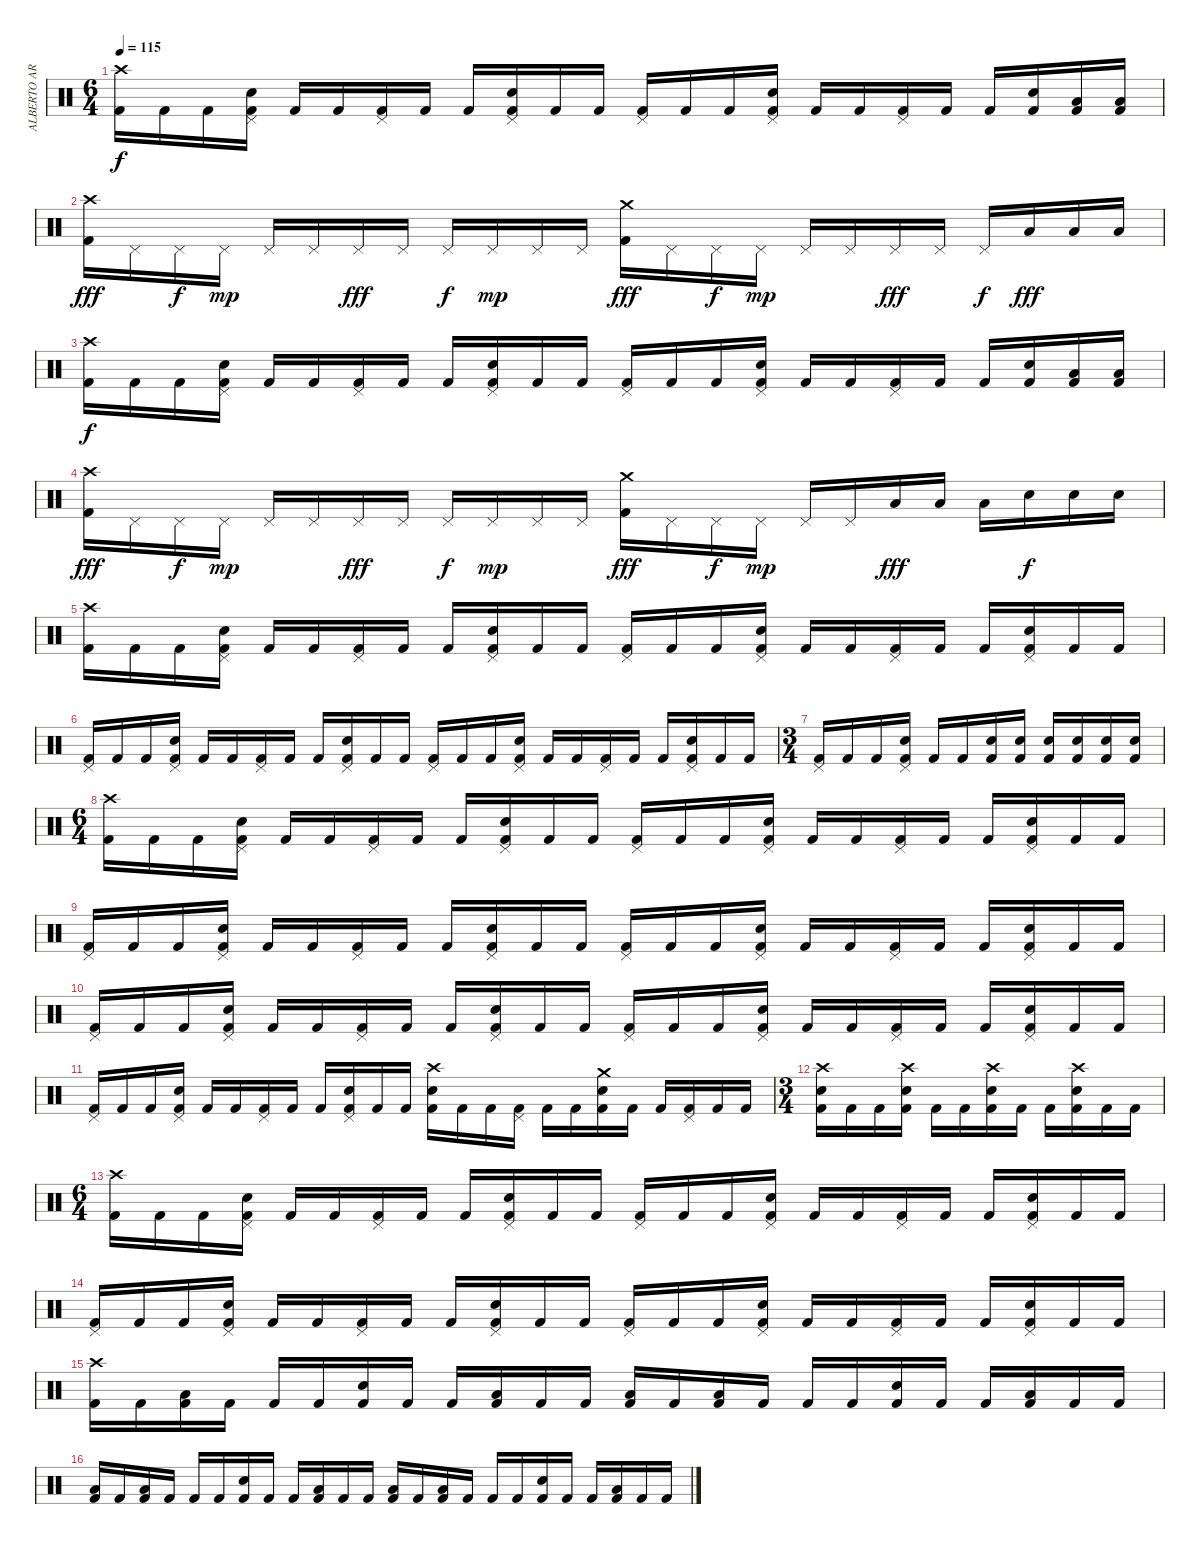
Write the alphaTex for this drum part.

\track ("ALBERTO ARDINES" "ALBERTO AR") {instrument percussion}
\staff {score}
\articulation defaults
\ts (6 4)
\tempo 115
\clef neutral
\ks c
("Crash high (hit)" "Kick (hit) 2").16{dy f} "Kick (hit) 2".16 "Kick (hit) 2".16 ("Pedal Hi-Hat (hit)" "Electric Snare (hit)" "Kick (hit) 2").16 "Kick (hit) 2".16 "Kick (hit) 2".16 ("Pedal Hi-Hat (hit)" "Kick (hit) 2").16 "Kick (hit) 2".16 "Kick (hit) 2".16 ("Pedal Hi-Hat (hit)" "Electric Snare (hit)" "Kick (hit) 2").16 "Kick (hit) 2".16 "Kick (hit) 2".16 ("Pedal Hi-Hat (hit)" "Kick (hit) 2").16 "Kick (hit) 2".16 "Kick (hit) 2".16 ("Pedal Hi-Hat (hit)" "Electric Snare (hit)" "Kick (hit) 2").16 "Kick (hit) 2".16 "Kick (hit) 2".16 ("Pedal Hi-Hat (hit)" "Kick (hit) 2").16 "Kick (hit) 2".16 "Kick (hit) 2".16 ("Electric Snare (hit)" "Kick (hit) 2").16 ("Low Tom (hit)" "Kick (hit) 2").16 ("Low Tom (hit)" "Kick (hit) 2").16 |
("Crash high (hit)" "Kick (hit) 2").16{dy fff} "Pedal Hi-Hat (hit)".16 "Pedal Hi-Hat (hit)".16{dy f} "Pedal Hi-Hat (hit)".16{dy mp} "Pedal Hi-Hat (hit)".16 "Pedal Hi-Hat (hit)".16 "Pedal Hi-Hat (hit)".16{dy fff} "Pedal Hi-Hat (hit)".16 "Pedal Hi-Hat (hit)".16{dy f} "Pedal Hi-Hat (hit)".16{dy mp} "Pedal Hi-Hat (hit)".16 "Pedal Hi-Hat (hit)".16 ("Crash medium (hit)" "Kick (hit) 2").16{dy fff} "Pedal Hi-Hat (hit)".16 "Pedal Hi-Hat (hit)".16{dy f} "Pedal Hi-Hat (hit)".16{dy mp} "Pedal Hi-Hat (hit)".16 "Pedal Hi-Hat (hit)".16 "Pedal Hi-Hat (hit)".16{dy fff} "Pedal Hi-Hat (hit)".16 "Pedal Hi-Hat (hit)".16{dy f} "Low Tom (hit)".16{dy fff} "Low Tom (hit)".16 "Low Tom (hit)".16 |
("Crash high (hit)" "Kick (hit) 2").16{dy f} "Kick (hit) 2".16 "Kick (hit) 2".16 ("Pedal Hi-Hat (hit)" "Electric Snare (hit)" "Kick (hit) 2").16 "Kick (hit) 2".16 "Kick (hit) 2".16 ("Pedal Hi-Hat (hit)" "Kick (hit) 2").16 "Kick (hit) 2".16 "Kick (hit) 2".16 ("Pedal Hi-Hat (hit)" "Electric Snare (hit)" "Kick (hit) 2").16 "Kick (hit) 2".16 "Kick (hit) 2".16 ("Pedal Hi-Hat (hit)" "Kick (hit) 2").16 "Kick (hit) 2".16 "Kick (hit) 2".16 ("Pedal Hi-Hat (hit)" "Electric Snare (hit)" "Kick (hit) 2").16 "Kick (hit) 2".16 "Kick (hit) 2".16 ("Pedal Hi-Hat (hit)" "Kick (hit) 2").16 "Kick (hit) 2".16 "Kick (hit) 2".16 ("Electric Snare (hit)" "Kick (hit) 2").16 ("Low Tom (hit)" "Kick (hit) 2").16 ("Low Tom (hit)" "Kick (hit) 2").16 |
("Crash high (hit)" "Kick (hit) 2").16{dy fff} "Pedal Hi-Hat (hit)".16 "Pedal Hi-Hat (hit)".16{dy f} "Pedal Hi-Hat (hit)".16{dy mp} "Pedal Hi-Hat (hit)".16 "Pedal Hi-Hat (hit)".16 "Pedal Hi-Hat (hit)".16{dy fff} "Pedal Hi-Hat (hit)".16 "Pedal Hi-Hat (hit)".16{dy f} "Pedal Hi-Hat (hit)".16{dy mp} "Pedal Hi-Hat (hit)".16 "Pedal Hi-Hat (hit)".16 ("Crash medium (hit)" "Kick (hit) 2").16{dy fff} "Pedal Hi-Hat (hit)".16 "Pedal Hi-Hat (hit)".16{dy f} "Pedal Hi-Hat (hit)".16{dy mp} "Pedal Hi-Hat (hit)".16 "Pedal Hi-Hat (hit)".16 "Low Tom (hit)".16{dy fff} "Low Tom (hit)".16 "Low Tom (hit)".16 "Electric Snare (hit)".16{dy f} "Electric Snare (hit)".16 "Electric Snare (hit)".16 |
("Crash high (hit)" "Kick (hit) 2").16 "Kick (hit) 2".16 "Kick (hit) 2".16 ("Pedal Hi-Hat (hit)" "Electric Snare (hit)" "Kick (hit) 2").16 "Kick (hit) 2".16 "Kick (hit) 2".16 ("Pedal Hi-Hat (hit)" "Kick (hit) 2").16 "Kick (hit) 2".16 "Kick (hit) 2".16 ("Pedal Hi-Hat (hit)" "Electric Snare (hit)" "Kick (hit) 2").16 "Kick (hit) 2".16 "Kick (hit) 2".16 ("Pedal Hi-Hat (hit)" "Kick (hit) 2").16 "Kick (hit) 2".16 "Kick (hit) 2".16 ("Pedal Hi-Hat (hit)" "Electric Snare (hit)" "Kick (hit) 2").16 "Kick (hit) 2".16 "Kick (hit) 2".16 ("Pedal Hi-Hat (hit)" "Kick (hit) 2").16 "Kick (hit) 2".16 "Kick (hit) 2".16 ("Pedal Hi-Hat (hit)" "Electric Snare (hit)" "Kick (hit) 2").16 "Kick (hit) 2".16 "Kick (hit) 2".16 |
("Pedal Hi-Hat (hit)" "Kick (hit) 2").16 "Kick (hit) 2".16 "Kick (hit) 2".16 ("Pedal Hi-Hat (hit)" "Electric Snare (hit)" "Kick (hit) 2").16 "Kick (hit) 2".16 "Kick (hit) 2".16 ("Pedal Hi-Hat (hit)" "Kick (hit) 2").16 "Kick (hit) 2".16 "Kick (hit) 2".16 ("Pedal Hi-Hat (hit)" "Electric Snare (hit)" "Kick (hit) 2").16 "Kick (hit) 2".16 "Kick (hit) 2".16 ("Pedal Hi-Hat (hit)" "Kick (hit) 2").16 "Kick (hit) 2".16 "Kick (hit) 2".16 ("Pedal Hi-Hat (hit)" "Electric Snare (hit)" "Kick (hit) 2").16 "Kick (hit) 2".16 "Kick (hit) 2".16 ("Pedal Hi-Hat (hit)" "Kick (hit) 2").16 "Kick (hit) 2".16 "Kick (hit) 2".16 ("Pedal Hi-Hat (hit)" "Electric Snare (hit)" "Kick (hit) 2").16 "Kick (hit) 2".16 "Kick (hit) 2".16 |
\ts (3 4)
("Pedal Hi-Hat (hit)" "Kick (hit) 2").16 "Kick (hit) 2".16 "Kick (hit) 2".16 ("Pedal Hi-Hat (hit)" "Electric Snare (hit)" "Kick (hit) 2").16 "Kick (hit) 2".16 "Kick (hit) 2".16 ("Electric Snare (hit)" "Kick (hit) 2").16 ("Electric Snare (hit)" "Kick (hit) 2").16 ("Electric Snare (hit)" "Kick (hit) 2").16 ("Electric Snare (hit)" "Kick (hit) 2").16 ("Electric Snare (hit)" "Kick (hit) 2").16 ("Electric Snare (hit)" "Kick (hit) 2").16 |
\ts (6 4)
("Crash high (hit)" "Kick (hit) 2").16 "Kick (hit) 2".16 "Kick (hit) 2".16 ("Pedal Hi-Hat (hit)" "Electric Snare (hit)" "Kick (hit) 2").16 "Kick (hit) 2".16 "Kick (hit) 2".16 ("Pedal Hi-Hat (hit)" "Kick (hit) 2").16 "Kick (hit) 2".16 "Kick (hit) 2".16 ("Pedal Hi-Hat (hit)" "Electric Snare (hit)" "Kick (hit) 2").16 "Kick (hit) 2".16 "Kick (hit) 2".16 ("Pedal Hi-Hat (hit)" "Kick (hit) 2").16 "Kick (hit) 2".16 "Kick (hit) 2".16 ("Pedal Hi-Hat (hit)" "Electric Snare (hit)" "Kick (hit) 2").16 "Kick (hit) 2".16 "Kick (hit) 2".16 ("Pedal Hi-Hat (hit)" "Kick (hit) 2").16 "Kick (hit) 2".16 "Kick (hit) 2".16 ("Pedal Hi-Hat (hit)" "Electric Snare (hit)" "Kick (hit) 2").16 "Kick (hit) 2".16 "Kick (hit) 2".16 |
("Pedal Hi-Hat (hit)" "Kick (hit) 2").16 "Kick (hit) 2".16 "Kick (hit) 2".16 ("Pedal Hi-Hat (hit)" "Electric Snare (hit)" "Kick (hit) 2").16 "Kick (hit) 2".16 "Kick (hit) 2".16 ("Pedal Hi-Hat (hit)" "Kick (hit) 2").16 "Kick (hit) 2".16 "Kick (hit) 2".16 ("Pedal Hi-Hat (hit)" "Electric Snare (hit)" "Kick (hit) 2").16 "Kick (hit) 2".16 "Kick (hit) 2".16 ("Pedal Hi-Hat (hit)" "Kick (hit) 2").16 "Kick (hit) 2".16 "Kick (hit) 2".16 ("Pedal Hi-Hat (hit)" "Electric Snare (hit)" "Kick (hit) 2").16 "Kick (hit) 2".16 "Kick (hit) 2".16 ("Pedal Hi-Hat (hit)" "Kick (hit) 2").16 "Kick (hit) 2".16 "Kick (hit) 2".16 ("Pedal Hi-Hat (hit)" "Electric Snare (hit)" "Kick (hit) 2").16 "Kick (hit) 2".16 "Kick (hit) 2".16 |
("Pedal Hi-Hat (hit)" "Kick (hit) 2").16 "Kick (hit) 2".16 "Kick (hit) 2".16 ("Pedal Hi-Hat (hit)" "Electric Snare (hit)" "Kick (hit) 2").16 "Kick (hit) 2".16 "Kick (hit) 2".16 ("Pedal Hi-Hat (hit)" "Kick (hit) 2").16 "Kick (hit) 2".16 "Kick (hit) 2".16 ("Pedal Hi-Hat (hit)" "Electric Snare (hit)" "Kick (hit) 2").16 "Kick (hit) 2".16 "Kick (hit) 2".16 ("Pedal Hi-Hat (hit)" "Kick (hit) 2").16 "Kick (hit) 2".16 "Kick (hit) 2".16 ("Pedal Hi-Hat (hit)" "Electric Snare (hit)" "Kick (hit) 2").16 "Kick (hit) 2".16 "Kick (hit) 2".16 ("Pedal Hi-Hat (hit)" "Kick (hit) 2").16 "Kick (hit) 2".16 "Kick (hit) 2".16 ("Pedal Hi-Hat (hit)" "Electric Snare (hit)" "Kick (hit) 2").16 "Kick (hit) 2".16 "Kick (hit) 2".16 |
("Pedal Hi-Hat (hit)" "Kick (hit) 2").16 "Kick (hit) 2".16 "Kick (hit) 2".16 ("Pedal Hi-Hat (hit)" "Electric Snare (hit)" "Kick (hit) 2").16 "Kick (hit) 2".16 "Kick (hit) 2".16 ("Pedal Hi-Hat (hit)" "Kick (hit) 2").16 "Kick (hit) 2".16 "Kick (hit) 2".16 ("Pedal Hi-Hat (hit)" "Electric Snare (hit)" "Kick (hit) 2").16 "Kick (hit) 2".16 "Kick (hit) 2".16 ("Crash high (hit)" "Electric Snare (hit)" "Kick (hit) 2").16 "Kick (hit) 2".16 "Kick (hit) 2".16 ("Pedal Hi-Hat (hit)" "Kick (hit) 2").16 "Kick (hit) 2".16 "Kick (hit) 2".16 ("Crash medium (hit)" "Electric Snare (hit)" "Kick (hit) 2").16 "Kick (hit) 2".16 "Kick (hit) 2".16 ("Pedal Hi-Hat (hit)" "Kick (hit) 2").16 "Kick (hit) 2".16 "Kick (hit) 2".16 |
\ts (3 4)
("Crash high (hit)" "Electric Snare (hit)" "Kick (hit) 2").16 "Kick (hit) 2".16 "Kick (hit) 2".16 ("Crash high (hit)" "Electric Snare (hit)" "Kick (hit) 2").16 "Kick (hit) 2".16 "Kick (hit) 2".16 ("Crash high (hit)" "Electric Snare (hit)" "Kick (hit) 2").16 "Kick (hit) 2".16 "Kick (hit) 2".16 ("Crash high (hit)" "Electric Snare (hit)" "Kick (hit) 2").16 "Kick (hit) 2".16 "Kick (hit) 2".16 |
\ts (6 4)
("Crash high (hit)" "Kick (hit) 2").16 "Kick (hit) 2".16 "Kick (hit) 2".16 ("Pedal Hi-Hat (hit)" "Electric Snare (hit)" "Kick (hit) 2").16 "Kick (hit) 2".16 "Kick (hit) 2".16 ("Pedal Hi-Hat (hit)" "Kick (hit) 2").16 "Kick (hit) 2".16 "Kick (hit) 2".16 ("Pedal Hi-Hat (hit)" "Electric Snare (hit)" "Kick (hit) 2").16 "Kick (hit) 2".16 "Kick (hit) 2".16 ("Pedal Hi-Hat (hit)" "Kick (hit) 2").16 "Kick (hit) 2".16 "Kick (hit) 2".16 ("Pedal Hi-Hat (hit)" "Electric Snare (hit)" "Kick (hit) 2").16 "Kick (hit) 2".16 "Kick (hit) 2".16 ("Pedal Hi-Hat (hit)" "Kick (hit) 2").16 "Kick (hit) 2".16 "Kick (hit) 2".16 ("Pedal Hi-Hat (hit)" "Electric Snare (hit)" "Kick (hit) 2").16 "Kick (hit) 2".16 "Kick (hit) 2".16 |
("Pedal Hi-Hat (hit)" "Kick (hit) 2").16 "Kick (hit) 2".16 "Kick (hit) 2".16 ("Pedal Hi-Hat (hit)" "Electric Snare (hit)" "Kick (hit) 2").16 "Kick (hit) 2".16 "Kick (hit) 2".16 ("Pedal Hi-Hat (hit)" "Kick (hit) 2").16 "Kick (hit) 2".16 "Kick (hit) 2".16 ("Pedal Hi-Hat (hit)" "Electric Snare (hit)" "Kick (hit) 2").16 "Kick (hit) 2".16 "Kick (hit) 2".16 ("Pedal Hi-Hat (hit)" "Kick (hit) 2").16 "Kick (hit) 2".16 "Kick (hit) 2".16 ("Pedal Hi-Hat (hit)" "Electric Snare (hit)" "Kick (hit) 2").16 "Kick (hit) 2".16 "Kick (hit) 2".16 ("Pedal Hi-Hat (hit)" "Kick (hit) 2").16 "Kick (hit) 2".16 "Kick (hit) 2".16 ("Pedal Hi-Hat (hit)" "Electric Snare (hit)" "Kick (hit) 2").16 "Kick (hit) 2".16 "Kick (hit) 2".16 |
("Crash high (hit)" "Kick (hit) 2").16 "Kick (hit) 2".16 ("Low Tom (hit)" "Kick (hit) 2").16 "Kick (hit) 2".16 "Kick (hit) 2".16 "Kick (hit) 2".16 ("Electric Snare (hit)" "Kick (hit) 2").16 "Kick (hit) 2".16 "Kick (hit) 2".16 ("Low Tom (hit)" "Kick (hit) 2").16 "Kick (hit) 2".16 "Kick (hit) 2".16 ("Low Floor Tom (hit)" "Kick (hit) 2").16 "Kick (hit) 2".16 ("Low Tom (hit)" "Kick (hit) 2").16 "Kick (hit) 2".16 "Kick (hit) 2".16 "Kick (hit) 2".16 ("Electric Snare (hit)" "Kick (hit) 2").16 "Kick (hit) 2".16 "Kick (hit) 2".16 ("Low Tom (hit)" "Kick (hit) 2").16 "Kick (hit) 2".16 "Kick (hit) 2".16 |
("Low Floor Tom (hit)" "Kick (hit) 2").16 "Kick (hit) 2".16 ("Low Tom (hit)" "Kick (hit) 2").16 "Kick (hit) 2".16 "Kick (hit) 2".16 "Kick (hit) 2".16 ("Electric Snare (hit)" "Kick (hit) 2").16 "Kick (hit) 2".16 "Kick (hit) 2".16 ("Low Tom (hit)" "Kick (hit) 2").16 "Kick (hit) 2".16 "Kick (hit) 2".16 ("Low Floor Tom (hit)" "Kick (hit) 2").16 "Kick (hit) 2".16 ("Low Tom (hit)" "Kick (hit) 2").16 "Kick (hit) 2".16 "Kick (hit) 2".16 "Kick (hit) 2".16 ("Electric Snare (hit)" "Kick (hit) 2").16 "Kick (hit) 2".16 "Kick (hit) 2".16 ("Low Tom (hit)" "Kick (hit) 2").16 "Kick (hit) 2".16 "Kick (hit) 2".16
